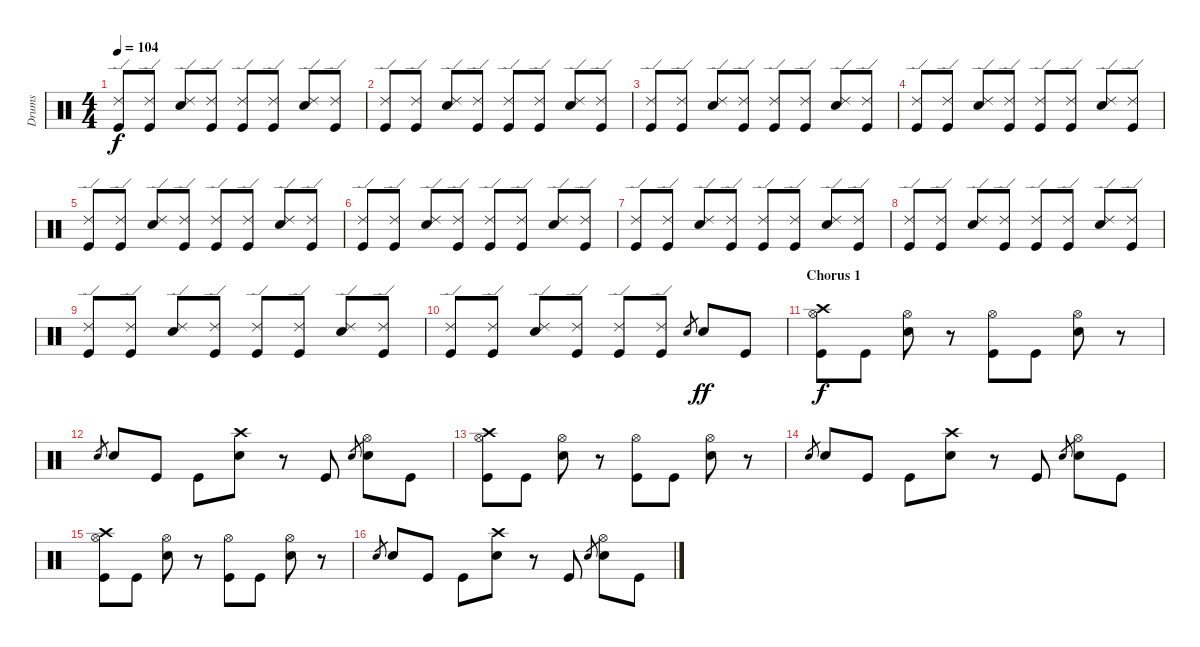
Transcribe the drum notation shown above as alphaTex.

\track ("Drums" "Drums") {instrument percussion}
\staff {score}
\articulation defaults
\ts (4 4)
\tempo 104
\clef neutral
\ks c
("Ride (edge) 2" "Kick (hit)").8{dy f} ("Ride (edge) 2" "Kick (hit)").8 ("Ride (edge) 2" "Snare (hit) 2").8 ("Ride (edge) 2" "Kick (hit)").8 ("Ride (edge) 2" "Kick (hit)").8 ("Ride (edge) 2" "Kick (hit)").8 ("Ride (edge) 2" "Snare (hit) 2").8 ("Ride (edge) 2" "Kick (hit)").8 |
("Ride (edge) 2" "Kick (hit)").8 ("Ride (edge) 2" "Kick (hit)").8 ("Ride (edge) 2" "Snare (hit) 2").8 ("Ride (edge) 2" "Kick (hit)").8 ("Ride (edge) 2" "Kick (hit)").8 ("Ride (edge) 2" "Kick (hit)").8 ("Ride (edge) 2" "Snare (hit) 2").8 ("Ride (edge) 2" "Kick (hit)").8 |
("Ride (edge) 2" "Kick (hit)").8 ("Ride (edge) 2" "Kick (hit)").8 ("Ride (edge) 2" "Snare (hit) 2").8 ("Ride (edge) 2" "Kick (hit)").8 ("Ride (edge) 2" "Kick (hit)").8 ("Ride (edge) 2" "Kick (hit)").8 ("Ride (edge) 2" "Snare (hit) 2").8 ("Ride (edge) 2" "Kick (hit)").8 |
("Ride (edge) 2" "Kick (hit)").8 ("Ride (edge) 2" "Kick (hit)").8 ("Ride (edge) 2" "Snare (hit) 2").8 ("Ride (edge) 2" "Kick (hit)").8 ("Ride (edge) 2" "Kick (hit)").8 ("Ride (edge) 2" "Kick (hit)").8 ("Ride (edge) 2" "Snare (hit) 2").8 ("Ride (edge) 2" "Kick (hit)").8 |
("Ride (edge) 2" "Kick (hit)").8 ("Ride (edge) 2" "Kick (hit)").8 ("Ride (edge) 2" "Snare (hit) 2").8 ("Ride (edge) 2" "Kick (hit)").8 ("Ride (edge) 2" "Kick (hit)").8 ("Ride (edge) 2" "Kick (hit)").8 ("Ride (edge) 2" "Snare (hit) 2").8 ("Ride (edge) 2" "Kick (hit)").8 |
("Ride (edge) 2" "Kick (hit)").8 ("Ride (edge) 2" "Kick (hit)").8 ("Ride (edge) 2" "Snare (hit) 2").8 ("Ride (edge) 2" "Kick (hit)").8 ("Ride (edge) 2" "Kick (hit)").8 ("Ride (edge) 2" "Kick (hit)").8 ("Ride (edge) 2" "Snare (hit) 2").8 ("Ride (edge) 2" "Kick (hit)").8 |
("Ride (edge) 2" "Kick (hit)").8 ("Ride (edge) 2" "Kick (hit)").8 ("Ride (edge) 2" "Snare (hit) 2").8 ("Ride (edge) 2" "Kick (hit)").8 ("Ride (edge) 2" "Kick (hit)").8 ("Ride (edge) 2" "Kick (hit)").8 ("Ride (edge) 2" "Snare (hit) 2").8 ("Ride (edge) 2" "Kick (hit)").8 |
("Ride (edge) 2" "Kick (hit)").8 ("Ride (edge) 2" "Kick (hit)").8 ("Ride (edge) 2" "Snare (hit) 2").8 ("Ride (edge) 2" "Kick (hit)").8 ("Ride (edge) 2" "Kick (hit)").8 ("Ride (edge) 2" "Kick (hit)").8 ("Ride (edge) 2" "Snare (hit) 2").8 ("Ride (edge) 2" "Kick (hit)").8 |
("Ride (edge) 2" "Kick (hit)").8 ("Ride (edge) 2" "Kick (hit)").8 ("Ride (edge) 2" "Snare (hit) 2").8 ("Ride (edge) 2" "Kick (hit)").8 ("Ride (edge) 2" "Kick (hit)").8 ("Ride (edge) 2" "Kick (hit)").8 ("Ride (edge) 2" "Snare (hit) 2").8 ("Ride (edge) 2" "Kick (hit)").8 |
("Ride (edge) 2" "Kick (hit)").8 ("Ride (edge) 2" "Kick (hit)").8 ("Ride (edge) 2" "Snare (hit) 2").8 ("Ride (edge) 2" "Kick (hit)").8 ("Ride (edge) 2" "Kick (hit)").8 ("Ride (edge) 2" "Kick (hit)").8 "Snare (hit) 2".8{gr} "Snare (hit) 2".8{dy ff} "Kick (hit)".8 |
\section ("" "Chorus 1")
("Hi-Hat (open)" "Crash high (hit)" "Kick (hit)").8{dy f} "Kick (hit)".8 ("Hi-Hat (open)" "Snare (hit) 2").8 r.8 ("Hi-Hat (open)" "Kick (hit)").8 "Kick (hit)".8 ("Hi-Hat (open)" "Snare (hit) 2").8 r.8 |
"Snare (hit) 2".8{gr} "Snare (hit) 2".8 "Kick (hit)".8 "Kick (hit)".8 ("Crash high (hit)" "Snare (hit) 2").8 r.8 "Kick (hit)".8 "Snare (hit) 2".8{gr} ("Hi-Hat (open)" "Snare (hit) 2").8 "Kick (hit)".8 |
("Hi-Hat (open)" "Crash high (hit)" "Kick (hit)").8 "Kick (hit)".8 ("Hi-Hat (open)" "Snare (hit) 2").8 r.8 ("Hi-Hat (open)" "Kick (hit)").8 "Kick (hit)".8 ("Hi-Hat (open)" "Snare (hit) 2").8 r.8 |
"Snare (hit) 2".8{gr} "Snare (hit) 2".8 "Kick (hit)".8 "Kick (hit)".8 ("Crash high (hit)" "Snare (hit) 2").8 r.8 "Kick (hit)".8 "Snare (hit) 2".8{gr} ("Hi-Hat (open)" "Snare (hit) 2").8 "Kick (hit)".8 |
("Hi-Hat (open)" "Crash high (hit)" "Kick (hit)").8 "Kick (hit)".8 ("Hi-Hat (open)" "Snare (hit) 2").8 r.8 ("Hi-Hat (open)" "Kick (hit)").8 "Kick (hit)".8 ("Hi-Hat (open)" "Snare (hit) 2").8 r.8 |
"Snare (hit) 2".8{gr} "Snare (hit) 2".8 "Kick (hit)".8 "Kick (hit)".8 ("Crash high (hit)" "Snare (hit) 2").8 r.8 "Kick (hit)".8 "Snare (hit) 2".8{gr} ("Hi-Hat (open)" "Snare (hit) 2").8 "Kick (hit)".8
